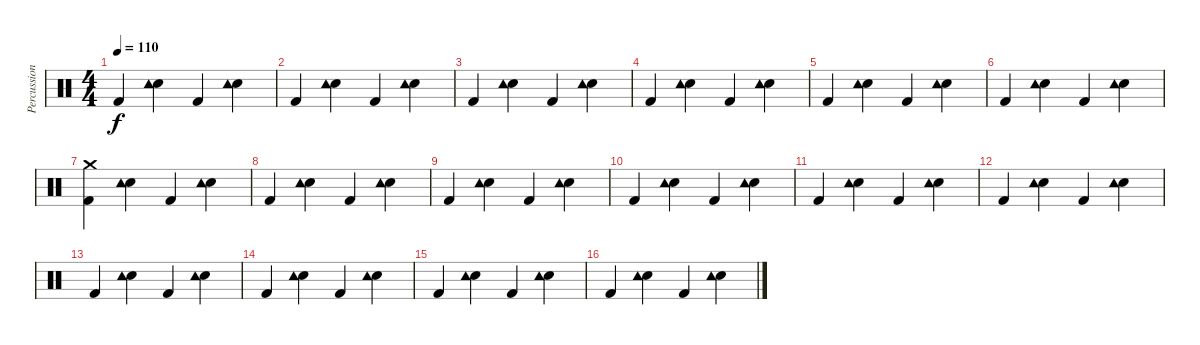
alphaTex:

\track ("Percussion" "Percussion") {instrument percussion}
\staff {score}
\articulation defaults
\ts (4 4)
\tempo 110
\clef neutral
\ks c "Kick (hit) 2".4{dy f}
("Electric Snare (hit)" "Tambourine (hit)").4 "Kick (hit) 2".4 ("Electric Snare (hit)" "Tambourine (hit)").4 |
"Kick (hit) 2".4 ("Electric Snare (hit)" "Tambourine (hit)").4 "Kick (hit) 2".4 ("Electric Snare (hit)" "Tambourine (hit)").4 |
"Kick (hit) 2".4 ("Electric Snare (hit)" "Tambourine (hit)").4 "Kick (hit) 2".4 ("Electric Snare (hit)" "Tambourine (hit)").4 |
"Kick (hit) 2".4 ("Electric Snare (hit)" "Tambourine (hit)").4 "Kick (hit) 2".4 ("Electric Snare (hit)" "Tambourine (hit)").4 |
"Kick (hit) 2".4 ("Electric Snare (hit)" "Tambourine (hit)").4 "Kick (hit) 2".4 ("Electric Snare (hit)" "Tambourine (hit)").4 |
"Kick (hit) 2".4 ("Electric Snare (hit)" "Tambourine (hit)").4 "Kick (hit) 2".4 ("Electric Snare (hit)" "Tambourine (hit)").4 |
("Kick (hit) 2" "Crash medium (hit)").4 ("Electric Snare (hit)" "Tambourine (hit)").4 "Kick (hit) 2".4 ("Electric Snare (hit)" "Tambourine (hit)").4 |
"Kick (hit) 2".4 ("Electric Snare (hit)" "Tambourine (hit)").4 "Kick (hit) 2".4 ("Electric Snare (hit)" "Tambourine (hit)").4 |
"Kick (hit) 2".4 ("Electric Snare (hit)" "Tambourine (hit)").4 "Kick (hit) 2".4 ("Electric Snare (hit)" "Tambourine (hit)").4 |
"Kick (hit) 2".4 ("Electric Snare (hit)" "Tambourine (hit)").4 "Kick (hit) 2".4 ("Electric Snare (hit)" "Tambourine (hit)").4 |
"Kick (hit) 2".4 ("Electric Snare (hit)" "Tambourine (hit)").4 "Kick (hit) 2".4 ("Electric Snare (hit)" "Tambourine (hit)").4 |
"Kick (hit) 2".4 ("Electric Snare (hit)" "Tambourine (hit)").4 "Kick (hit) 2".4 ("Electric Snare (hit)" "Tambourine (hit)").4 |
"Kick (hit) 2".4 ("Electric Snare (hit)" "Tambourine (hit)").4 "Kick (hit) 2".4 ("Electric Snare (hit)" "Tambourine (hit)").4 |
"Kick (hit) 2".4 ("Electric Snare (hit)" "Tambourine (hit)").4 "Kick (hit) 2".4 ("Electric Snare (hit)" "Tambourine (hit)").4 |
"Kick (hit) 2".4 ("Electric Snare (hit)" "Tambourine (hit)").4 "Kick (hit) 2".4 ("Electric Snare (hit)" "Tambourine (hit)").4 |
"Kick (hit) 2".4 ("Electric Snare (hit)" "Tambourine (hit)").4 "Kick (hit) 2".4 ("Electric Snare (hit)" "Tambourine (hit)").4
